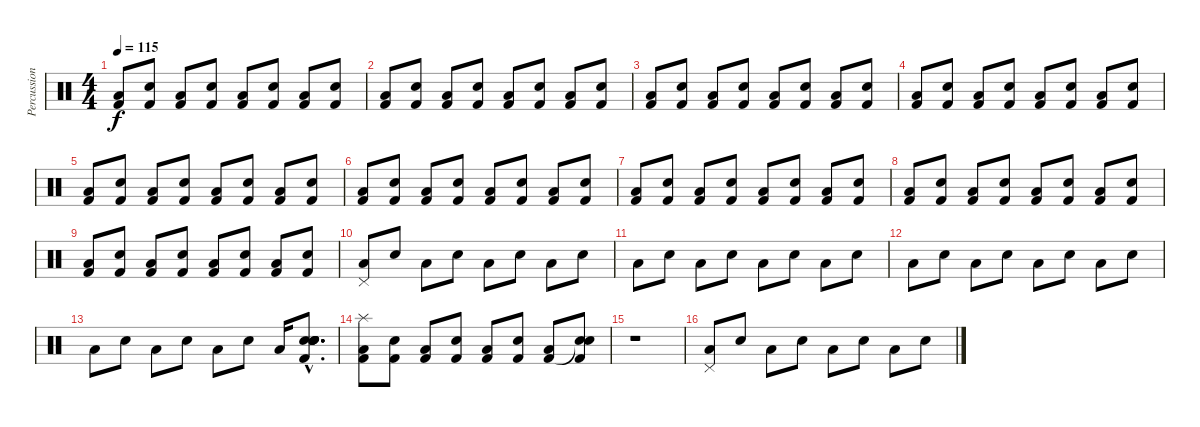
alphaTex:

\track ("Percussions" "Percussion") {instrument percussion}
\staff {score}
\articulation defaults
\ts (4 4)
\tempo 115
\clef neutral
\ks c
("Kick (hit) 2" "Low Floor Tom (hit)").8{dy f} ("Kick (hit) 2" "Electric Snare (hit)").8 ("Kick (hit) 2" "Low Floor Tom (hit)").8 ("Kick (hit) 2" "Electric Snare (hit)").8 ("Kick (hit) 2" "Low Floor Tom (hit)").8 ("Kick (hit) 2" "Electric Snare (hit)").8 ("Kick (hit) 2" "Low Floor Tom (hit)").8 ("Kick (hit) 2" "Electric Snare (hit)").8 |
("Kick (hit) 2" "Low Floor Tom (hit)").8 ("Kick (hit) 2" "Electric Snare (hit)").8 ("Kick (hit) 2" "Low Floor Tom (hit)").8 ("Kick (hit) 2" "Electric Snare (hit)").8 ("Kick (hit) 2" "Low Floor Tom (hit)").8 ("Kick (hit) 2" "Electric Snare (hit)").8 ("Kick (hit) 2" "Low Floor Tom (hit)").8 ("Kick (hit) 2" "Electric Snare (hit)").8 |
("Kick (hit) 2" "Low Floor Tom (hit)").8 ("Kick (hit) 2" "Electric Snare (hit)").8 ("Kick (hit) 2" "Low Floor Tom (hit)").8 ("Kick (hit) 2" "Electric Snare (hit)").8 ("Kick (hit) 2" "Low Floor Tom (hit)").8 ("Kick (hit) 2" "Electric Snare (hit)").8 ("Kick (hit) 2" "Low Floor Tom (hit)").8 ("Kick (hit) 2" "Electric Snare (hit)").8 |
("Kick (hit) 2" "Low Floor Tom (hit)").8 ("Kick (hit) 2" "Electric Snare (hit)").8 ("Kick (hit) 2" "Low Floor Tom (hit)").8 ("Kick (hit) 2" "Electric Snare (hit)").8 ("Kick (hit) 2" "Low Floor Tom (hit)").8 ("Kick (hit) 2" "Electric Snare (hit)").8 ("Kick (hit) 2" "Low Floor Tom (hit)").8 ("Kick (hit) 2" "Electric Snare (hit)").8 |
("Kick (hit) 2" "Low Floor Tom (hit)").8 ("Kick (hit) 2" "Electric Snare (hit)").8 ("Kick (hit) 2" "Low Floor Tom (hit)").8 ("Kick (hit) 2" "Electric Snare (hit)").8 ("Kick (hit) 2" "Low Floor Tom (hit)").8 ("Kick (hit) 2" "Electric Snare (hit)").8 ("Kick (hit) 2" "Low Floor Tom (hit)").8 ("Kick (hit) 2" "Electric Snare (hit)").8 |
("Kick (hit) 2" "Low Floor Tom (hit)").8 ("Kick (hit) 2" "Electric Snare (hit)").8 ("Kick (hit) 2" "Low Floor Tom (hit)").8 ("Kick (hit) 2" "Electric Snare (hit)").8 ("Kick (hit) 2" "Low Floor Tom (hit)").8 ("Kick (hit) 2" "Electric Snare (hit)").8 ("Kick (hit) 2" "Low Floor Tom (hit)").8 ("Kick (hit) 2" "Electric Snare (hit)").8 |
("Kick (hit) 2" "Low Floor Tom (hit)").8 ("Kick (hit) 2" "Electric Snare (hit)").8 ("Kick (hit) 2" "Low Floor Tom (hit)").8 ("Kick (hit) 2" "Electric Snare (hit)").8 ("Kick (hit) 2" "Low Floor Tom (hit)").8 ("Kick (hit) 2" "Electric Snare (hit)").8 ("Kick (hit) 2" "Low Floor Tom (hit)").8 ("Kick (hit) 2" "Electric Snare (hit)").8 |
("Kick (hit) 2" "Low Floor Tom (hit)").8 ("Kick (hit) 2" "Electric Snare (hit)").8 ("Kick (hit) 2" "Low Floor Tom (hit)").8 ("Kick (hit) 2" "Electric Snare (hit)").8 ("Kick (hit) 2" "Low Floor Tom (hit)").8 ("Kick (hit) 2" "Electric Snare (hit)").8 ("Kick (hit) 2" "Low Floor Tom (hit)").8 ("Kick (hit) 2" "Electric Snare (hit)").8 |
("Kick (hit) 2" "Low Floor Tom (hit)").8 ("Kick (hit) 2" "Electric Snare (hit)").8 ("Kick (hit) 2" "Low Floor Tom (hit)").8 ("Kick (hit) 2" "Electric Snare (hit)").8 ("Kick (hit) 2" "Low Floor Tom (hit)").8 ("Kick (hit) 2" "Electric Snare (hit)").8 ("Kick (hit) 2" "Low Floor Tom (hit)").8 ("Kick (hit) 2" "Electric Snare (hit)").8 |
("Low Floor Tom (hit)" "Pedal Hi-Hat (hit)").8 "Electric Snare (hit)".8 "Low Floor Tom (hit)".8 "Electric Snare (hit)".8 "Low Floor Tom (hit)".8 "Electric Snare (hit)".8 "Low Floor Tom (hit)".8 "Electric Snare (hit)".8 |
"Low Floor Tom (hit)".8 "Electric Snare (hit)".8 "Low Floor Tom (hit)".8 "Electric Snare (hit)".8 "Low Floor Tom (hit)".8 "Electric Snare (hit)".8 "Low Floor Tom (hit)".8 "Electric Snare (hit)".8 |
"Low Floor Tom (hit)".8 "Electric Snare (hit)".8 "Low Floor Tom (hit)".8 "Electric Snare (hit)".8 "Low Floor Tom (hit)".8 "Electric Snare (hit)".8 "Low Floor Tom (hit)".8 "Electric Snare (hit)".8 |
"Low Floor Tom (hit)".8 "Electric Snare (hit)".8 "Low Floor Tom (hit)".8 "Electric Snare (hit)".8 "Low Floor Tom (hit)".8 "Electric Snare (hit)".8 "Low Floor Tom (hit)".16 ("Electric Snare (hit)"{hac} "Snare (hit) 2"{hac} "Electric Snare (hit)"{hac} "Electric Snare (hit)"{hac} "Snare (hit) 2"{hac} "Kick (hit) 2"{hac}).8{d} |
("Splash (hit)" "Kick (hit) 2" "Low Floor Tom (hit)").8 ("Kick (hit) 2" "Electric Snare (hit)").8 ("Kick (hit) 2" "Low Floor Tom (hit)").8 ("Kick (hit) 2" "Electric Snare (hit)").8 ("Kick (hit) 2" "Low Floor Tom (hit)").8 ("Kick (hit) 2" "Electric Snare (hit)").8 ("Kick (hit) 2" "Low Floor Tom (hit)").8 ("Snare (hit)"{t} "Kick (hit) 2" "Electric Snare (hit)").8 |
r.1 |
("Low Floor Tom (hit)" "Pedal Hi-Hat (hit)").8 "Electric Snare (hit)".8 "Low Floor Tom (hit)".8 "Electric Snare (hit)".8 "Low Floor Tom (hit)".8 "Electric Snare (hit)".8 "Low Floor Tom (hit)".8 "Electric Snare (hit)".8
